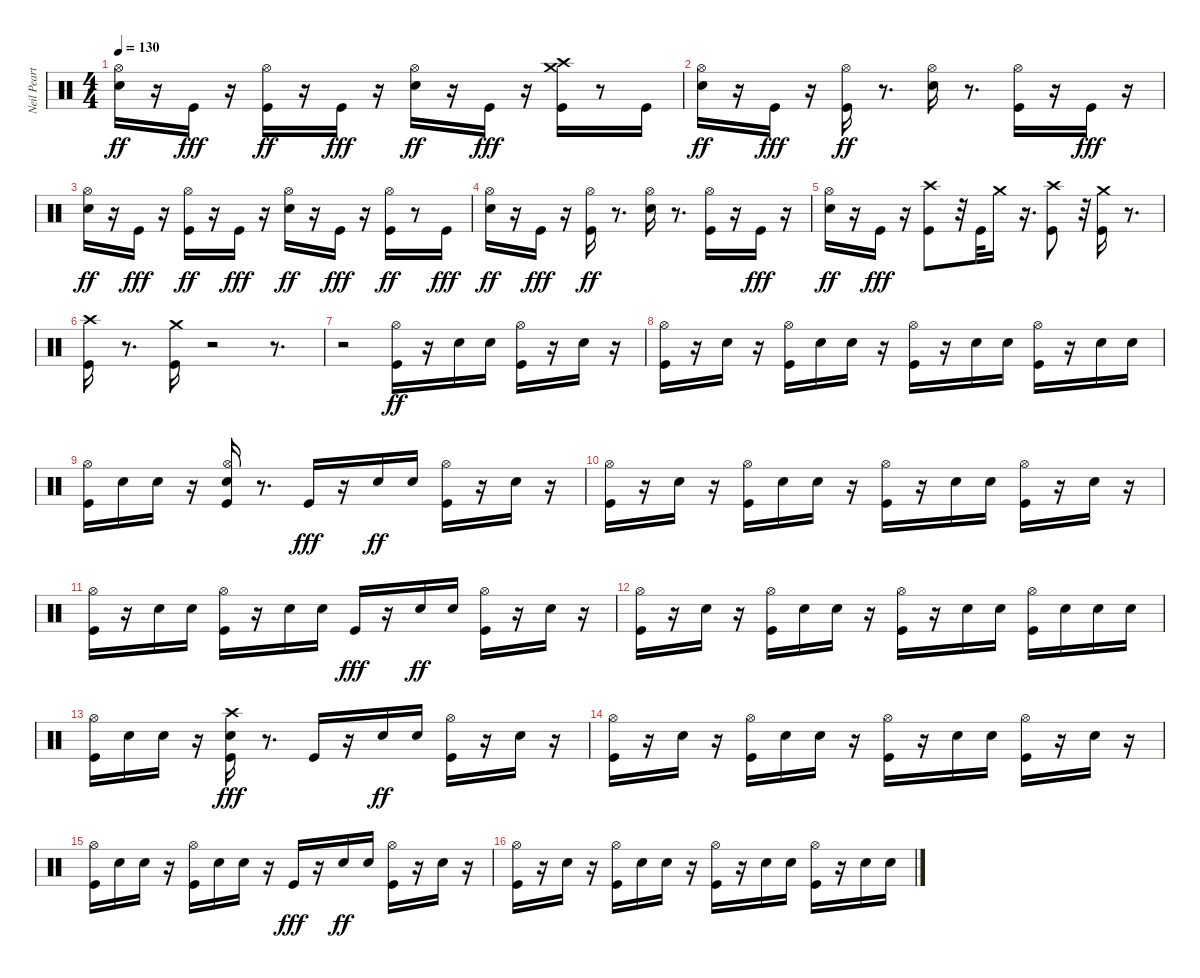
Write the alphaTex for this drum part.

\track ("Neil Peart" "Neil Peart") {instrument percussion}
\staff {score}
\articulation defaults
\ts (4 4)
\tempo 130
\clef neutral
\ks c
("Snare (hit) 2" "Hi-Hat (open)").16{dy ff} r.16 "Kick (hit)".16{dy fff} r.16 ("Kick (hit)" "Hi-Hat (open)").16{dy ff} r.16 "Kick (hit)".16{dy fff} r.16 ("Snare (hit) 2" "Hi-Hat (open)").16{dy ff} r.16 "Kick (hit)".16{dy fff} r.16 ("Crash medium (hit)" "Kick (hit)" "Crash high (hit)").16 r.8 "Kick (hit)".16 |
("Snare (hit) 2" "Hi-Hat (open)").16{dy ff} r.16 "Kick (hit)".16{dy fff} r.16 ("Kick (hit)" "Hi-Hat (open)").16{dy ff} r.8{d} ("Snare (hit) 2" "Hi-Hat (open)").16 r.8{d} ("Kick (hit)" "Hi-Hat (open)").16 r.16 "Kick (hit)".16{dy fff} r.16 |
("Snare (hit) 2" "Hi-Hat (open)").16{dy ff} r.16 "Kick (hit)".16{dy fff} r.16 ("Kick (hit)" "Hi-Hat (open)").16{dy ff} r.16 "Kick (hit)".16{dy fff} r.16 ("Snare (hit) 2" "Hi-Hat (open)").16{dy ff} r.16 "Kick (hit)".16{dy fff} r.16 ("Kick (hit)" "Hi-Hat (open)").16{dy ff} r.8 "Kick (hit)".16{dy fff} |
("Snare (hit) 2" "Hi-Hat (open)").16{dy ff} r.16 "Kick (hit)".16{dy fff} r.16 ("Kick (hit)" "Hi-Hat (open)").16{dy ff} r.8{d} ("Snare (hit) 2" "Hi-Hat (open)").16 r.8{d} ("Kick (hit)" "Hi-Hat (open)").16 r.16 "Kick (hit)".16{dy fff} r.16 |
("Snare (hit) 2" "Hi-Hat (open)").16{dy ff} r.16 "Kick (hit)".16{dy fff} r.16 ("Kick (hit)" "Crash high (hit)").8 r.32 "Kick (hit)".32 "Crash medium (hit)".16 r.16{d} ("Kick (hit)" "Crash high (hit)").8 r.32 ("Crash medium (hit)" "Kick (hit)").16 r.8{d} |
("Kick (hit)" "Crash high (hit)").16 r.8{d} ("Crash medium (hit)" "Kick (hit)").16 r.2 r.8{d} |
r.2 ("Kick (hit)" "Hi-Hat (open)").16{dy ff} r.16 "Snare (hit) 2".16 "Snare (hit) 2".16 ("Kick (hit)" "Hi-Hat (open)").16 r.16 "Snare (hit) 2".16 r.16 |
("Kick (hit)" "Hi-Hat (open)").16 r.16 "Snare (hit) 2".16 r.16 ("Kick (hit)" "Hi-Hat (open)").16 "Snare (hit) 2".16 "Snare (hit) 2".16 r.16 ("Kick (hit)" "Hi-Hat (open)").16 r.16 "Snare (hit) 2".16 "Snare (hit) 2".16 ("Kick (hit)" "Hi-Hat (open)").16 r.16 "Snare (hit) 2".16 "Snare (hit) 2".16 |
("Kick (hit)" "Hi-Hat (open)").16 "Snare (hit) 2".16 "Snare (hit) 2".16 r.16 ("Kick (hit)" "Snare (hit) 2" "Hi-Hat (open)").16 r.8{d} "Kick (hit)".16{dy fff} r.16 "Snare (hit) 2".16{dy ff} "Snare (hit) 2".16 ("Kick (hit)" "Hi-Hat (open)").16 r.16 "Snare (hit) 2".16 r.16 |
("Kick (hit)" "Hi-Hat (open)").16 r.16 "Snare (hit) 2".16 r.16 ("Kick (hit)" "Hi-Hat (open)").16 "Snare (hit) 2".16 "Snare (hit) 2".16 r.16 ("Kick (hit)" "Hi-Hat (open)").16 r.16 "Snare (hit) 2".16 "Snare (hit) 2".16 ("Kick (hit)" "Hi-Hat (open)").16 r.16 "Snare (hit) 2".16 r.16 |
("Kick (hit)" "Hi-Hat (open)").16 r.16 "Snare (hit) 2".16 "Snare (hit) 2".16 ("Kick (hit)" "Hi-Hat (open)").16 r.16 "Snare (hit) 2".16 "Snare (hit) 2".16 "Kick (hit)".16{dy fff} r.16 "Snare (hit) 2".16{dy ff} "Snare (hit) 2".16 ("Kick (hit)" "Hi-Hat (open)").16 r.16 "Snare (hit) 2".16 r.16 |
("Kick (hit)" "Hi-Hat (open)").16 r.16 "Snare (hit) 2".16 r.16 ("Kick (hit)" "Hi-Hat (open)").16 "Snare (hit) 2".16 "Snare (hit) 2".16 r.16 ("Kick (hit)" "Hi-Hat (open)").16 r.16 "Snare (hit) 2".16 "Snare (hit) 2".16 ("Kick (hit)" "Hi-Hat (open)").16 "Snare (hit) 2".16 "Snare (hit) 2".16 "Snare (hit) 2".16 |
("Kick (hit)" "Hi-Hat (open)").16 "Snare (hit) 2".16 "Snare (hit) 2".16 r.16 ("Kick (hit)" "Snare (hit) 2" "Crash high (hit)").16{dy fff} r.8{d} "Kick (hit)".16 r.16 "Snare (hit) 2".16{dy ff} "Snare (hit) 2".16 ("Kick (hit)" "Hi-Hat (open)").16 r.16 "Snare (hit) 2".16 r.16 |
("Kick (hit)" "Hi-Hat (open)").16 r.16 "Snare (hit) 2".16 r.16 ("Kick (hit)" "Hi-Hat (open)").16 "Snare (hit) 2".16 "Snare (hit) 2".16 r.16 ("Kick (hit)" "Hi-Hat (open)").16 r.16 "Snare (hit) 2".16 "Snare (hit) 2".16 ("Kick (hit)" "Hi-Hat (open)").16 r.16 "Snare (hit) 2".16 r.16 |
("Kick (hit)" "Hi-Hat (open)").16 "Snare (hit) 2".16 "Snare (hit) 2".16 r.16 ("Kick (hit)" "Hi-Hat (open)").16 "Snare (hit) 2".16 "Snare (hit) 2".16 r.16 "Kick (hit)".16{dy fff} r.16 "Snare (hit) 2".16{dy ff} "Snare (hit) 2".16 ("Kick (hit)" "Hi-Hat (open)").16 r.16 "Snare (hit) 2".16 r.16 |
("Kick (hit)" "Hi-Hat (open)").16 r.16 "Snare (hit) 2".16 r.16 ("Kick (hit)" "Hi-Hat (open)").16 "Snare (hit) 2".16 "Snare (hit) 2".16 r.16 ("Kick (hit)" "Hi-Hat (open)").16 r.16 "Snare (hit) 2".16 "Snare (hit) 2".16 ("Kick (hit)" "Hi-Hat (open)").16 r.16 "Snare (hit) 2".16 "Snare (hit) 2".16
